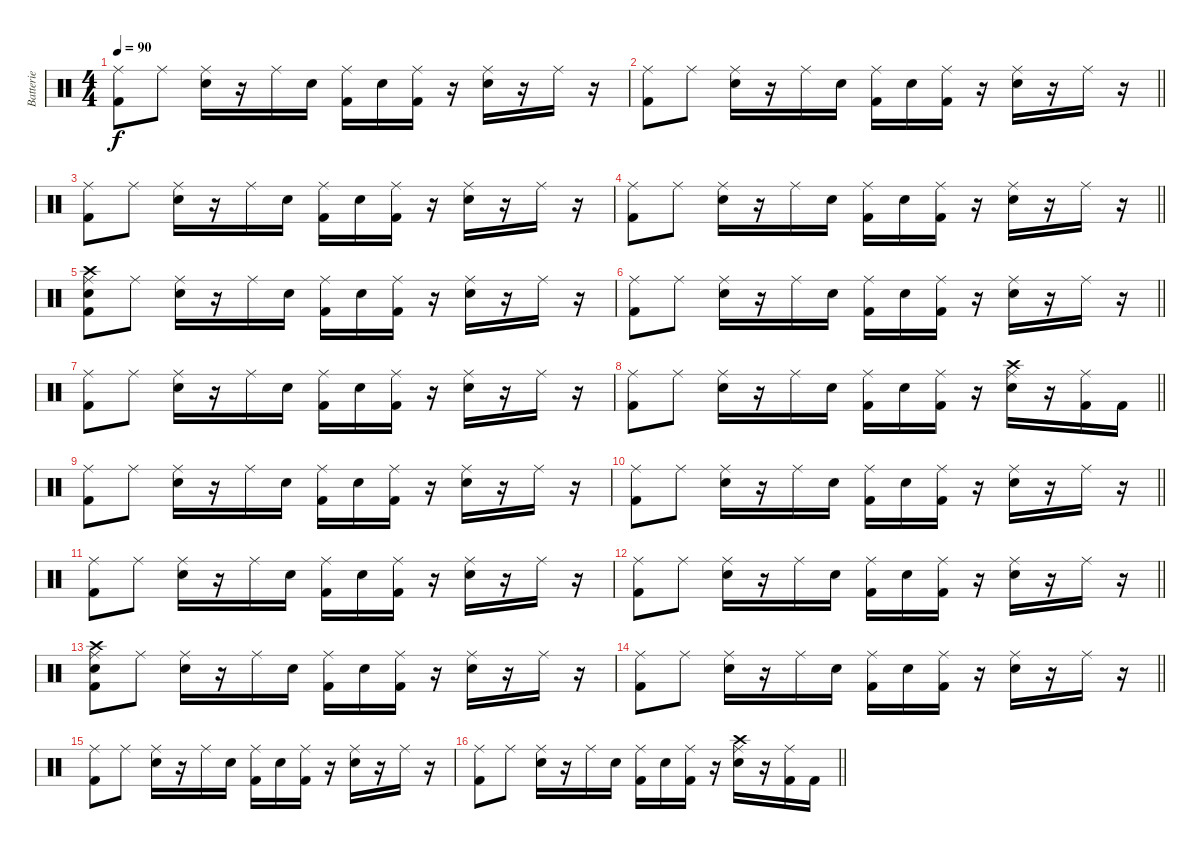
\track ("Batterie" "Batterie") {instrument percussion}
\staff {score}
\articulation defaults
\ts (4 4)
\tempo 90
\clef neutral
\ks c
("Ride (middle)" "Kick (hit) 2").8{dy f} "Ride (middle)".8 ("Ride (middle)" "Electric Snare (hit)").16 r.16 "Ride (middle)".16 "Electric Snare (hit)".16 ("Ride (middle)" "Kick (hit) 2").16 "Electric Snare (hit)".16 ("Ride (middle)" "Kick (hit) 2").16 r.16 ("Ride (middle)" "Electric Snare (hit)").16 r.16 "Ride (middle)".16 r.16 |
\barLineRight lightlight
("Ride (middle)" "Kick (hit) 2").8 "Ride (middle)".8 ("Ride (middle)" "Electric Snare (hit)").16 r.16 "Ride (middle)".16 "Electric Snare (hit)".16 ("Ride (middle)" "Kick (hit) 2").16 "Electric Snare (hit)".16 ("Ride (middle)" "Kick (hit) 2").16 r.16 ("Ride (middle)" "Electric Snare (hit)").16 r.16 "Ride (middle)".16 r.16 |
("Ride (middle)" "Kick (hit) 2").8 "Ride (middle)".8 ("Ride (middle)" "Electric Snare (hit)").16 r.16 "Ride (middle)".16 "Electric Snare (hit)".16 ("Ride (middle)" "Kick (hit) 2").16 "Electric Snare (hit)".16 ("Ride (middle)" "Kick (hit) 2").16 r.16 ("Ride (middle)" "Electric Snare (hit)").16 r.16 "Ride (middle)".16 r.16 |
\barLineRight lightlight
("Ride (middle)" "Kick (hit) 2").8 "Ride (middle)".8 ("Ride (middle)" "Electric Snare (hit)").16 r.16 "Ride (middle)".16 "Electric Snare (hit)".16 ("Ride (middle)" "Kick (hit) 2").16 "Electric Snare (hit)".16 ("Ride (middle)" "Kick (hit) 2").16 r.16 ("Ride (middle)" "Electric Snare (hit)").16 r.16 "Ride (middle)".16 r.16 |
("Crash high (hit)" "Ride (middle)" "Electric Snare (hit)" "Kick (hit) 2").8 "Ride (middle)".8 ("Ride (middle)" "Electric Snare (hit)").16 r.16 "Ride (middle)".16 "Electric Snare (hit)".16 ("Ride (middle)" "Kick (hit) 2").16 "Electric Snare (hit)".16 ("Ride (middle)" "Kick (hit) 2").16 r.16 ("Ride (middle)" "Electric Snare (hit)").16 r.16 "Ride (middle)".16 r.16 |
\barLineRight lightlight
("Ride (middle)" "Kick (hit) 2").8 "Ride (middle)".8 ("Ride (middle)" "Electric Snare (hit)").16 r.16 "Ride (middle)".16 "Electric Snare (hit)".16 ("Ride (middle)" "Kick (hit) 2").16 "Electric Snare (hit)".16 ("Ride (middle)" "Kick (hit) 2").16 r.16 ("Ride (middle)" "Electric Snare (hit)").16 r.16 "Ride (middle)".16 r.16 |
("Ride (middle)" "Kick (hit) 2").8 "Ride (middle)".8 ("Ride (middle)" "Electric Snare (hit)").16 r.16 "Ride (middle)".16 "Electric Snare (hit)".16 ("Ride (middle)" "Kick (hit) 2").16 "Electric Snare (hit)".16 ("Ride (middle)" "Kick (hit) 2").16 r.16 ("Ride (middle)" "Electric Snare (hit)").16 r.16 "Ride (middle)".16 r.16 |
\barLineRight lightlight
("Ride (middle)" "Kick (hit) 2").8 "Ride (middle)".8 ("Ride (middle)" "Electric Snare (hit)").16 r.16 "Ride (middle)".16 "Electric Snare (hit)".16 ("Ride (middle)" "Kick (hit) 2").16 "Electric Snare (hit)".16 ("Ride (middle)" "Kick (hit) 2").16 r.16 ("Ride (middle)" "Crash high (hit)" "Electric Snare (hit)").16 r.16 ("Ride (middle)" "Kick (hit) 2").16 "Kick (hit) 2".16 |
("Ride (middle)" "Kick (hit) 2").8 "Ride (middle)".8 ("Ride (middle)" "Electric Snare (hit)").16 r.16 "Ride (middle)".16 "Electric Snare (hit)".16 ("Ride (middle)" "Kick (hit) 2").16 "Electric Snare (hit)".16 ("Ride (middle)" "Kick (hit) 2").16 r.16 ("Ride (middle)" "Electric Snare (hit)").16 r.16 "Ride (middle)".16 r.16 |
\barLineRight lightlight
("Ride (middle)" "Kick (hit) 2").8 "Ride (middle)".8 ("Ride (middle)" "Electric Snare (hit)").16 r.16 "Ride (middle)".16 "Electric Snare (hit)".16 ("Ride (middle)" "Kick (hit) 2").16 "Electric Snare (hit)".16 ("Ride (middle)" "Kick (hit) 2").16 r.16 ("Ride (middle)" "Electric Snare (hit)").16 r.16 "Ride (middle)".16 r.16 |
("Ride (middle)" "Kick (hit) 2").8 "Ride (middle)".8 ("Ride (middle)" "Electric Snare (hit)").16 r.16 "Ride (middle)".16 "Electric Snare (hit)".16 ("Ride (middle)" "Kick (hit) 2").16 "Electric Snare (hit)".16 ("Ride (middle)" "Kick (hit) 2").16 r.16 ("Ride (middle)" "Electric Snare (hit)").16 r.16 "Ride (middle)".16 r.16 |
\barLineRight lightlight
("Ride (middle)" "Kick (hit) 2").8 "Ride (middle)".8 ("Ride (middle)" "Electric Snare (hit)").16 r.16 "Ride (middle)".16 "Electric Snare (hit)".16 ("Ride (middle)" "Kick (hit) 2").16 "Electric Snare (hit)".16 ("Ride (middle)" "Kick (hit) 2").16 r.16 ("Ride (middle)" "Electric Snare (hit)").16 r.16 "Ride (middle)".16 r.16 |
("Crash high (hit)" "Ride (middle)" "Electric Snare (hit)" "Kick (hit) 2").8 "Ride (middle)".8 ("Ride (middle)" "Electric Snare (hit)").16 r.16 "Ride (middle)".16 "Electric Snare (hit)".16 ("Ride (middle)" "Kick (hit) 2").16 "Electric Snare (hit)".16 ("Ride (middle)" "Kick (hit) 2").16 r.16 ("Ride (middle)" "Electric Snare (hit)").16 r.16 "Ride (middle)".16 r.16 |
\barLineRight lightlight
("Ride (middle)" "Kick (hit) 2").8 "Ride (middle)".8 ("Ride (middle)" "Electric Snare (hit)").16 r.16 "Ride (middle)".16 "Electric Snare (hit)".16 ("Ride (middle)" "Kick (hit) 2").16 "Electric Snare (hit)".16 ("Ride (middle)" "Kick (hit) 2").16 r.16 ("Ride (middle)" "Electric Snare (hit)").16 r.16 "Ride (middle)".16 r.16 |
("Ride (middle)" "Kick (hit) 2").8 "Ride (middle)".8 ("Ride (middle)" "Electric Snare (hit)").16 r.16 "Ride (middle)".16 "Electric Snare (hit)".16 ("Ride (middle)" "Kick (hit) 2").16 "Electric Snare (hit)".16 ("Ride (middle)" "Kick (hit) 2").16 r.16 ("Ride (middle)" "Electric Snare (hit)").16 r.16 "Ride (middle)".16 r.16 |
\barLineRight lightlight
("Ride (middle)" "Kick (hit) 2").8 "Ride (middle)".8 ("Ride (middle)" "Electric Snare (hit)").16 r.16 "Ride (middle)".16 "Electric Snare (hit)".16 ("Ride (middle)" "Kick (hit) 2").16 "Electric Snare (hit)".16 ("Ride (middle)" "Kick (hit) 2").16 r.16 ("Ride (middle)" "Crash high (hit)" "Electric Snare (hit)").16 r.16 ("Ride (middle)" "Kick (hit) 2").16 "Kick (hit) 2".16
